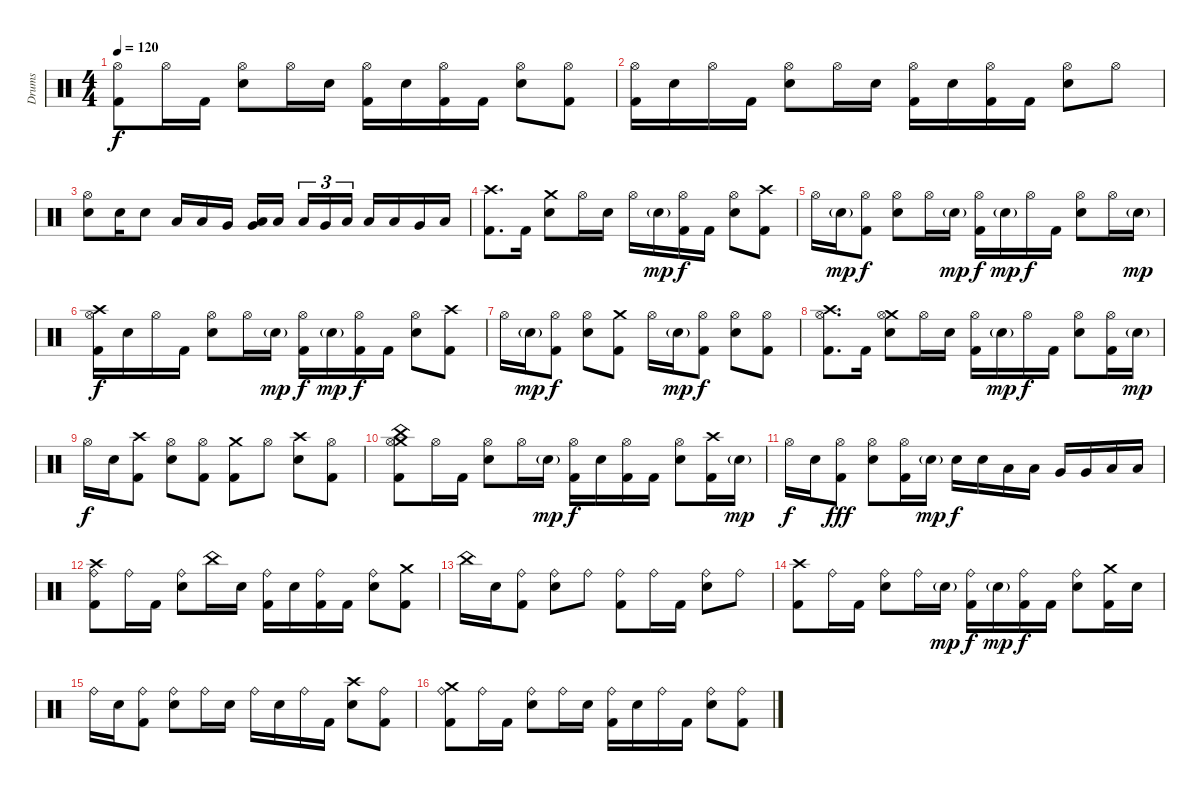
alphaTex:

\track ("Drums" "Drums") {instrument percussion}
\staff {score}
\articulation defaults
\ts (4 4)
\tempo 120
\clef neutral
\ks c
("Hi-Hat (open)" "Kick (hit) 2").8{dy f} "Hi-Hat (open)".16 "Kick (hit) 2".16 ("Hi-Hat (open)" "Electric Snare (hit)").8 "Hi-Hat (open)".16 "Electric Snare (hit)".16 ("Hi-Hat (open)" "Kick (hit) 2").16 "Electric Snare (hit)".16 ("Hi-Hat (open)" "Kick (hit) 2").16 "Kick (hit) 2".16 ("Hi-Hat (open)" "Electric Snare (hit)").8 ("Hi-Hat (open)" "Kick (hit) 2").8 |
("Hi-Hat (open)" "Kick (hit) 2").16 "Electric Snare (hit)".16 "Hi-Hat (open)".16 "Kick (hit) 2".16 ("Hi-Hat (open)" "Electric Snare (hit)").8 "Hi-Hat (open)".16 "Electric Snare (hit)".16 ("Hi-Hat (open)" "Kick (hit) 2").16 "Electric Snare (hit)".16 ("Hi-Hat (open)" "Kick (hit) 2").16 "Kick (hit) 2".16 ("Hi-Hat (open)" "Electric Snare (hit)").8 "Hi-Hat (open)".8 |
("Hi-Hat (open)" "Electric Snare (hit)").8 "Electric Snare (hit)".16 "Electric Snare (hit)".8 "Low Tom (hit)".16 "Low Tom (hit)".16 "Very Low Tom (hit)".16 ("Very Low Tom (hit)" "Low Floor Tom (hit)").16 "Low Floor Tom (hit)".16{beam splitsecondary} "Low Tom (hit)".16{tu (3 2)} "Very Low Tom (hit)".16{tu (3 2)} "Low Floor Tom (hit)".16{tu (3 2)} "Low Floor Tom (hit)".16 "Low Tom (hit)".16 "Very Low Tom (hit)".16 "Low Floor Tom (hit)".16 |
("Crash high (hit)" "Kick (hit) 2").8{d} "Kick (hit) 2".16 ("Crash medium (hit)" "Electric Snare (hit)").8 "Hi-Hat (open)".16 "Electric Snare (hit)".16 "Hi-Hat (open)".16 "Electric Snare (hit)"{g}.16{dy mp} ("Hi-Hat (open)" "Kick (hit) 2").16{dy f} "Kick (hit) 2".16 ("Hi-Hat (open)" "Electric Snare (hit)").8 ("Crash high (hit)" "Kick (hit) 2").8 |
"Hi-Hat (open)".16 "Electric Snare (hit)"{g}.16{dy mp} ("Hi-Hat (open)" "Kick (hit) 2").8{dy f} ("Hi-Hat (open)" "Electric Snare (hit)").8 "Hi-Hat (open)".16 "Electric Snare (hit)"{g}.16{dy mp} ("Hi-Hat (open)" "Kick (hit) 2").16{dy f} "Electric Snare (hit)"{g}.16{dy mp} "Hi-Hat (open)".16{dy f} "Kick (hit) 2".16 ("Hi-Hat (open)" "Electric Snare (hit)").8 "Hi-Hat (open)".16 "Electric Snare (hit)"{g}.16{dy mp} |
("Crash high (hit)" "Hi-Hat (open)" "Kick (hit) 2").16{dy f} "Electric Snare (hit)".16 "Hi-Hat (open)".16 "Kick (hit) 2".16 ("Hi-Hat (open)" "Electric Snare (hit)").8 "Hi-Hat (open)".16 "Electric Snare (hit)"{g}.16{dy mp} ("Hi-Hat (open)" "Kick (hit) 2").16{dy f} "Electric Snare (hit)"{g}.16{dy mp} ("Hi-Hat (open)" "Kick (hit) 2").16{dy f} "Kick (hit) 2".16 ("Hi-Hat (open)" "Electric Snare (hit)").8 ("Crash high (hit)" "Kick (hit) 2").8 |
"Hi-Hat (open)".16 "Electric Snare (hit)"{g}.16{dy mp} ("Hi-Hat (open)" "Kick (hit) 2").8{dy f} ("Hi-Hat (open)" "Electric Snare (hit)").8 ("Crash medium (hit)" "Kick (hit) 2").8 "Hi-Hat (open)".16 "Electric Snare (hit)"{g}.16{dy mp} ("Hi-Hat (open)" "Kick (hit) 2").8{dy f} ("Hi-Hat (open)" "Electric Snare (hit)").8 ("Hi-Hat (open)" "Kick (hit) 2").8 |
("Crash high (hit)" "Hi-Hat (open)" "Kick (hit) 2").8{d} "Kick (hit) 2".16 ("Crash medium (hit)" "Hi-Hat (open)" "Electric Snare (hit)").8 "Hi-Hat (open)".16 "Electric Snare (hit)".16 ("Hi-Hat (open)" "Kick (hit) 2").16 "Electric Snare (hit)"{g}.16{dy mp} "Hi-Hat (open)".16{dy f} "Kick (hit) 2".16 ("Hi-Hat (open)" "Electric Snare (hit)").8 ("Hi-Hat (open)" "Kick (hit) 2").16 "Electric Snare (hit)"{g}.16{dy mp} |
"Hi-Hat (open)".16{dy f} "Electric Snare (hit)".16 ("Crash high (hit)" "Kick (hit) 2").8 ("Hi-Hat (open)" "Electric Snare (hit)").8 ("Hi-Hat (open)" "Kick (hit) 2").8 ("Crash medium (hit)" "Kick (hit) 2").8 "Hi-Hat (open)".8 ("Crash high (hit)" "Electric Snare (hit)").8 ("Hi-Hat (open)" "Kick (hit) 2").8 |
("Crash medium (hit)" "China (hit)" "Hi-Hat (open)" "Kick (hit) 2").8 "Hi-Hat (open)".16 "Kick (hit) 2".16 ("Hi-Hat (open)" "Electric Snare (hit)").8 "Hi-Hat (open)".16 "Electric Snare (hit)"{g}.16{dy mp} ("Hi-Hat (open)" "Kick (hit) 2").16{dy f} "Electric Snare (hit)".16 ("Hi-Hat (open)" "Kick (hit) 2").16 "Kick (hit) 2".16 ("Hi-Hat (open)" "Electric Snare (hit)").8 ("Crash high (hit)" "Kick (hit) 2").16 "Electric Snare (hit)"{g}.16{dy mp} |
"Hi-Hat (open)".16{dy f} "Electric Snare (hit)".16 ("Hi-Hat (open)" "Kick (hit) 2").8{dy fff} ("Hi-Hat (open)" "Electric Snare (hit)").8 ("Hi-Hat (open)" "Kick (hit) 2").16 "Electric Snare (hit)"{g}.16{dy mp} "Electric Snare (hit)".16{dy f} "Electric Snare (hit)".16 "Low Tom (hit)".16 "Low Tom (hit)".16 "Very Low Tom (hit)".16 "Very Low Tom (hit)".16 "Low Floor Tom (hit)".16 "Low Floor Tom (hit)".16 |
("Crash high (hit)" "Ride (bell)" "Kick (hit) 2").8 "Ride (bell)".16 "Kick (hit) 2".16 ("Ride (bell)" "Electric Snare (hit)").8 "China (hit)".16 "Electric Snare (hit)".16 ("Ride (bell)" "Kick (hit) 2").16 "Electric Snare (hit)".16 ("Ride (bell)" "Kick (hit) 2").16 "Kick (hit) 2".16 ("Ride (bell)" "Electric Snare (hit)").8 ("Crash medium (hit)" "Kick (hit) 2").8 |
"China (hit)".16 "Electric Snare (hit)".16 ("Ride (bell)" "Kick (hit) 2").8 ("Ride (bell)" "Electric Snare (hit)").8 "Ride (bell)".8 ("Ride (bell)" "Kick (hit) 2").8 "Ride (bell)".16 "Kick (hit) 2".16 ("Ride (bell)" "Electric Snare (hit)").8 "Ride (bell)".8 |
("Crash high (hit)" "Kick (hit) 2").8 "Ride (bell)".16 "Kick (hit) 2".16 ("Ride (bell)" "Electric Snare (hit)").8 "Ride (bell)".16 "Electric Snare (hit)"{g}.16{dy mp} ("Ride (bell)" "Kick (hit) 2").16{dy f} "Electric Snare (hit)"{g}.16{dy mp} ("Ride (bell)" "Kick (hit) 2").16{dy f} "Kick (hit) 2".16 ("Ride (bell)" "Electric Snare (hit)").8 ("Crash medium (hit)" "Kick (hit) 2").16 "Electric Snare (hit)".16 |
"Ride (bell)".16 "Electric Snare (hit)".16 ("Ride (bell)" "Kick (hit) 2").8 ("Ride (bell)" "Electric Snare (hit)").8 "Ride (bell)".16 "Electric Snare (hit)".16 "Ride (bell)".16 "Electric Snare (hit)".16 "Ride (bell)".16 "Kick (hit) 2".16 ("Crash high (hit)" "Electric Snare (hit)").8 ("Ride (bell)" "Kick (hit) 2").8 |
("Crash medium (hit)" "Ride (bell)" "Kick (hit) 2").8 "Ride (bell)".16 "Kick (hit) 2".16 ("Ride (bell)" "Electric Snare (hit)").8 "Ride (bell)".16 "Electric Snare (hit)".16 ("Ride (bell)" "Kick (hit) 2").16 "Electric Snare (hit)".16 "Ride (bell)".16 "Kick (hit) 2".16 ("Ride (bell)" "Electric Snare (hit)").8 ("Ride (bell)" "Kick (hit) 2").8
